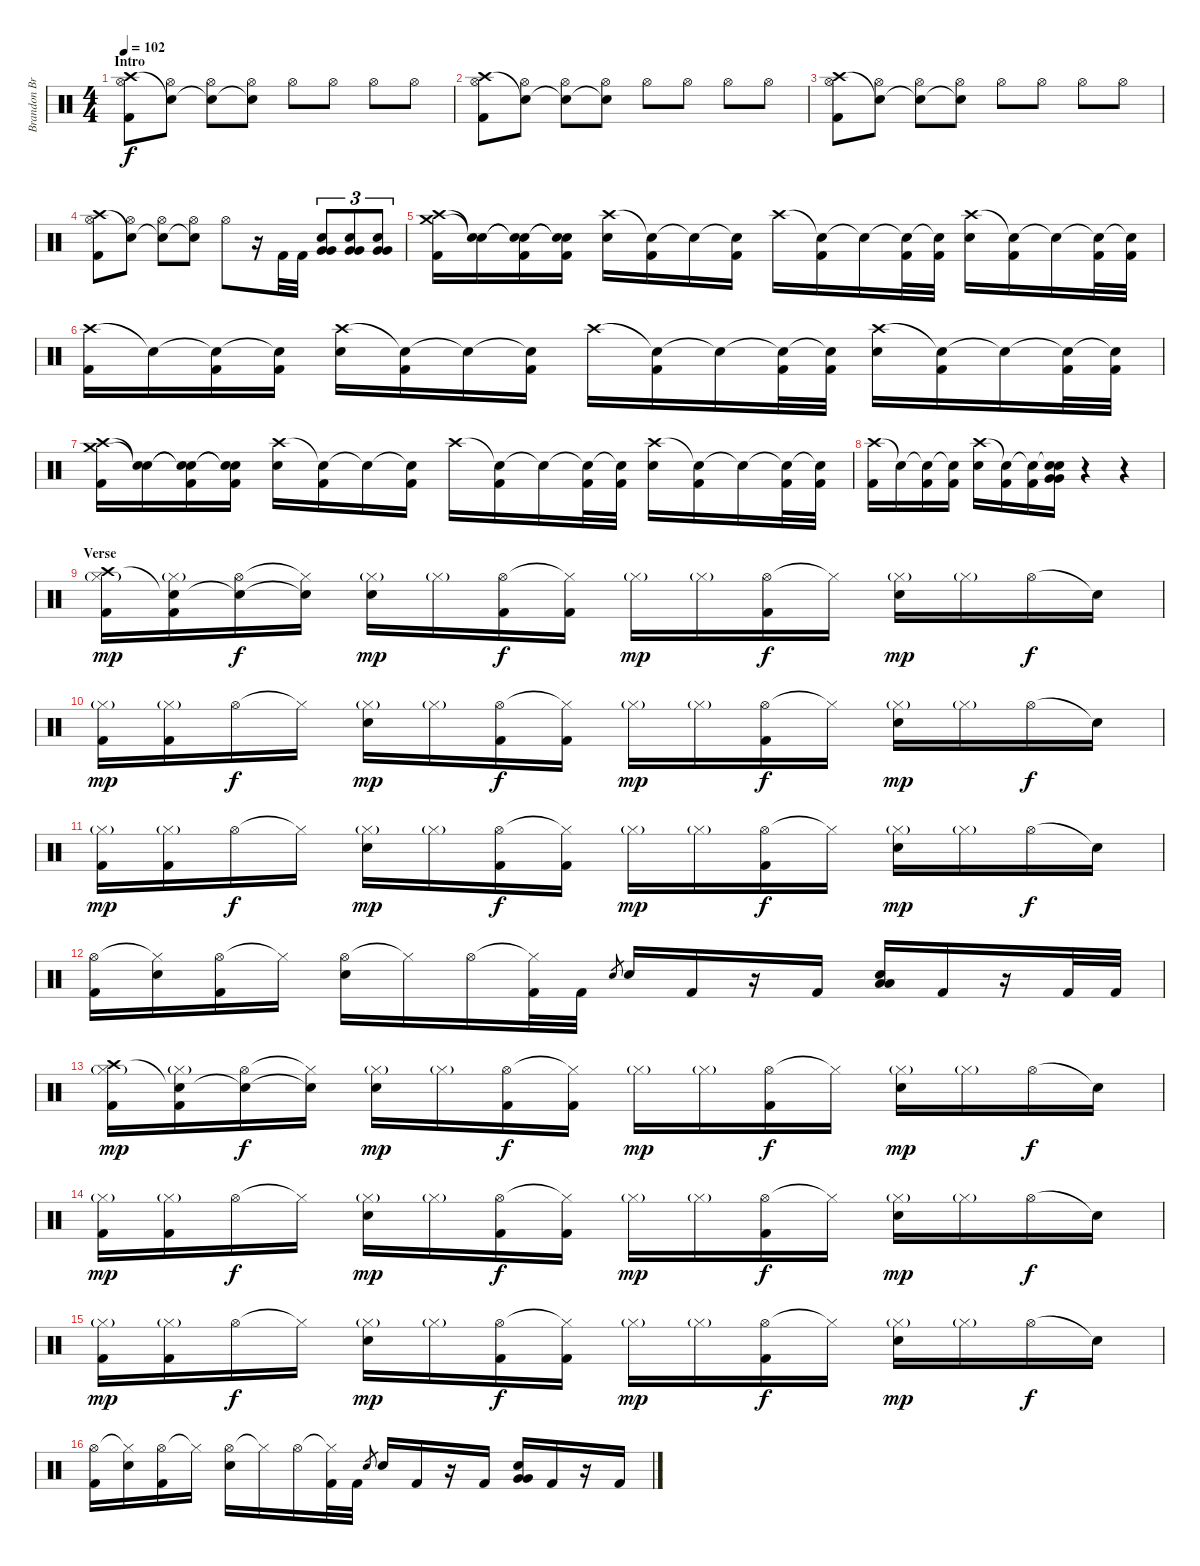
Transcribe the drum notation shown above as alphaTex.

\track ("Brandon Brown (Drums)" "Brandon Br") {instrument percussion}
\staff {score}
\articulation defaults
\ts (4 4)
\section ("" "Intro")
\tempo 102
\clef neutral
\ks c
("Hi-Hat (open)" "Crash high (hit)" "Kick (hit) 2").8{dy f} ("Hi-Hat (open)" "Snare (hit)"{t}).8 ("Hi-Hat (open)" "Snare (hit)"{t}).8 ("Hi-Hat (open)" "Snare (hit)"{t}).8 "Hi-Hat (open)".8 "Hi-Hat (open)".8 "Hi-Hat (open)".8 "Hi-Hat (open)".8 |
("Hi-Hat (open)" "Crash high (hit)" "Kick (hit) 2").8 ("Hi-Hat (open)" "Snare (hit)"{t}).8 ("Hi-Hat (open)" "Snare (hit)"{t}).8 ("Hi-Hat (open)" "Snare (hit)"{t}).8 "Hi-Hat (open)".8 "Hi-Hat (open)".8 "Hi-Hat (open)".8 "Hi-Hat (open)".8 |
("Hi-Hat (open)" "Crash high (hit)" "Kick (hit) 2").8 ("Hi-Hat (open)" "Snare (hit)"{t}).8 ("Hi-Hat (open)" "Snare (hit)"{t}).8 ("Hi-Hat (open)" "Snare (hit)"{t}).8 "Hi-Hat (open)".8 "Hi-Hat (open)".8 "Hi-Hat (open)".8 "Hi-Hat (open)".8 |
("Hi-Hat (open)" "Crash high (hit)" "Kick (hit) 2").8 ("Hi-Hat (open)" "Snare (hit)"{t}).8 ("Hi-Hat (open)" "Snare (hit)"{t}).8 ("Hi-Hat (open)" "Snare (hit)"{t}).8 "Hi-Hat (open)".8 r.16 "Kick (hit) 2".32 "Kick (hit) 2".32 ("Electric Snare (hit)" "Very Low Tom (hit)" "Very Low Tom (hit)").8{tu (3 2)} ("Electric Snare (hit)" "Very Low Tom (hit)" "Very Low Tom (hit)").8{tu (3 2)} ("Electric Snare (hit)" "Very Low Tom (hit)" "Very Low Tom (hit)").8{tu (3 2)} |
("Crash high (hit)" "Crash medium (hit)" "Kick (hit) 2").16 ("Snare (hit)"{t} "Snare (hit)"{t}).16 ("Snare (hit)"{t} "Snare (hit)"{t} "Kick (hit) 2").16 ("Snare (hit)"{t} "Snare (hit)"{t} "Kick (hit) 2").16 ("Crash high (hit)" "Electric Snare (hit)").16 ("Snare (hit)"{t} "Kick (hit) 2").16 "Snare (hit)"{t}.16 ("Snare (hit)"{t} "Kick (hit) 2").16 "Crash high (hit)".16 ("Snare (hit)"{t} "Kick (hit) 2").16 "Snare (hit)"{t}.16 ("Snare (hit)"{t} "Kick (hit) 2").32 ("Snare (hit)"{t} "Kick (hit) 2").32 ("Crash high (hit)" "Electric Snare (hit)").16 ("Snare (hit)"{t} "Kick (hit) 2").16 "Snare (hit)"{t}.16 ("Snare (hit)"{t} "Kick (hit) 2").32 ("Snare (hit)"{t} "Kick (hit) 2").32 |
("Crash high (hit)" "Kick (hit) 2").16 "Snare (hit)"{t}.16 ("Snare (hit)"{t} "Kick (hit) 2").16 ("Snare (hit)"{t} "Kick (hit) 2").16 ("Crash high (hit)" "Electric Snare (hit)").16 ("Snare (hit)"{t} "Kick (hit) 2").16 "Snare (hit)"{t}.16 ("Snare (hit)"{t} "Kick (hit) 2").16 "Crash high (hit)".16 ("Snare (hit)"{t} "Kick (hit) 2").16 "Snare (hit)"{t}.16 ("Snare (hit)"{t} "Kick (hit) 2").32 ("Snare (hit)"{t} "Kick (hit) 2").32 ("Crash high (hit)" "Electric Snare (hit)").16 ("Snare (hit)"{t} "Kick (hit) 2").16 "Snare (hit)"{t}.16 ("Snare (hit)"{t} "Kick (hit) 2").32 ("Snare (hit)"{t} "Kick (hit) 2").32 |
("Crash high (hit)" "Crash medium (hit)" "Kick (hit) 2").16 ("Snare (hit)"{t} "Snare (hit)"{t}).16 ("Snare (hit)"{t} "Snare (hit)"{t} "Kick (hit) 2").16 ("Snare (hit)"{t} "Snare (hit)"{t} "Kick (hit) 2").16 ("Crash high (hit)" "Electric Snare (hit)").16 ("Snare (hit)"{t} "Kick (hit) 2").16 "Snare (hit)"{t}.16 ("Snare (hit)"{t} "Kick (hit) 2").16 "Crash high (hit)".16 ("Snare (hit)"{t} "Kick (hit) 2").16 "Snare (hit)"{t}.16 ("Snare (hit)"{t} "Kick (hit) 2").32 ("Snare (hit)"{t} "Kick (hit) 2").32 ("Crash high (hit)" "Electric Snare (hit)").16 ("Snare (hit)"{t} "Kick (hit) 2").16 "Snare (hit)"{t}.16 ("Snare (hit)"{t} "Kick (hit) 2").32 ("Snare (hit)"{t} "Kick (hit) 2").32 |
("Crash high (hit)" "Kick (hit) 2").16 "Snare (hit)"{t}.16 ("Snare (hit)"{t} "Kick (hit) 2").16 ("Snare (hit)"{t} "Kick (hit) 2").16 ("Crash high (hit)" "Electric Snare (hit)").16 ("Snare (hit)"{t} "Kick (hit) 2").16 ("Snare (hit)"{t} "Kick (hit) 2").16 ("Snare (hit)"{t} "Electric Snare (hit)" "Very Low Tom (hit)" "Very Low Tom (hit)").16 r.4 r.4 |
\section ("" "Verse")
("Hi-Hat (closed)"{g} "Crash high (hit)" "Kick (hit) 2").16{dy mp} ("Hi-Hat (closed)"{g} "Snare (hit)"{t} "Kick (hit) 2").16 ("Hi-Hat (open)" "Snare (hit)"{t}).16{dy f} ("Hi-Hat (closed)"{t} "Snare (hit)"{t}).16 ("Hi-Hat (closed)"{g} "Electric Snare (hit)").16{dy mp} "Hi-Hat (closed)"{g}.16 ("Hi-Hat (open)" "Kick (hit) 2").16{dy f} ("Hi-Hat (closed)"{t} "Kick (hit) 2").16 "Hi-Hat (closed)"{g}.16{dy mp} "Hi-Hat (closed)"{g}.16 ("Hi-Hat (open)" "Kick (hit) 2").16{dy f} "Hi-Hat (closed)"{t}.16 ("Hi-Hat (closed)"{g} "Electric Snare (hit)").16{dy mp} "Hi-Hat (closed)"{g}.16 "Hi-Hat (open)".16{dy f} "Snare (hit)"{t}.16 |
("Hi-Hat (closed)"{g} "Kick (hit) 2").16{dy mp} ("Hi-Hat (closed)"{g} "Kick (hit) 2").16 "Hi-Hat (open)".16{dy f} "Hi-Hat (closed)"{t}.16 ("Hi-Hat (closed)"{g} "Electric Snare (hit)").16{dy mp} "Hi-Hat (closed)"{g}.16 ("Hi-Hat (open)" "Kick (hit) 2").16{dy f} ("Hi-Hat (closed)"{t} "Kick (hit) 2").16 "Hi-Hat (closed)"{g}.16{dy mp} "Hi-Hat (closed)"{g}.16 ("Hi-Hat (open)" "Kick (hit) 2").16{dy f} "Hi-Hat (closed)"{t}.16 ("Hi-Hat (closed)"{g} "Electric Snare (hit)").16{dy mp} "Hi-Hat (closed)"{g}.16 "Hi-Hat (open)".16{dy f} "Snare (hit)"{t}.16 |
("Hi-Hat (closed)"{g} "Kick (hit) 2").16{dy mp} ("Hi-Hat (closed)"{g} "Kick (hit) 2").16 "Hi-Hat (open)".16{dy f} "Hi-Hat (closed)"{t}.16 ("Hi-Hat (closed)"{g} "Electric Snare (hit)").16{dy mp} "Hi-Hat (closed)"{g}.16 ("Hi-Hat (open)" "Kick (hit) 2").16{dy f} ("Hi-Hat (closed)"{t} "Kick (hit) 2").16 "Hi-Hat (closed)"{g}.16{dy mp} "Hi-Hat (closed)"{g}.16 ("Hi-Hat (open)" "Kick (hit) 2").16{dy f} "Hi-Hat (closed)"{t}.16 ("Hi-Hat (closed)"{g} "Electric Snare (hit)").16{dy mp} "Hi-Hat (closed)"{g}.16 "Hi-Hat (open)".16{dy f} "Snare (hit)"{t}.16 |
("Hi-Hat (open)" "Kick (hit) 2").16 ("Hi-Hat (closed)"{t} "Electric Snare (hit)").16 ("Hi-Hat (open)" "Kick (hit) 2").16 "Hi-Hat (closed)"{t}.16 ("Hi-Hat (open)" "Electric Snare (hit)").16 "Hi-Hat (closed)"{t}.16 "Hi-Hat (open)".16 ("Hi-Hat (closed)"{t} "Kick (hit) 2").32 "Kick (hit) 2".32 "Electric Snare (hit)".8{gr} "Electric Snare (hit)".16 "Kick (hit) 2".16 r.16 "Kick (hit) 2".16 ("Low Tom (hit)" "Low Tom (hit)" "Electric Snare (hit)").16 "Kick (hit) 2".16 r.16 "Kick (hit) 2".32 "Kick (hit) 2".32 |
("Hi-Hat (closed)"{g} "Crash high (hit)" "Kick (hit) 2").16{dy mp} ("Hi-Hat (closed)"{g} "Snare (hit)"{t} "Kick (hit) 2").16 ("Hi-Hat (open)" "Snare (hit)"{t}).16{dy f} ("Hi-Hat (closed)"{t} "Snare (hit)"{t}).16 ("Hi-Hat (closed)"{g} "Electric Snare (hit)").16{dy mp} "Hi-Hat (closed)"{g}.16 ("Hi-Hat (open)" "Kick (hit) 2").16{dy f} ("Hi-Hat (closed)"{t} "Kick (hit) 2").16 "Hi-Hat (closed)"{g}.16{dy mp} "Hi-Hat (closed)"{g}.16 ("Hi-Hat (open)" "Kick (hit) 2").16{dy f} "Hi-Hat (closed)"{t}.16 ("Hi-Hat (closed)"{g} "Electric Snare (hit)").16{dy mp} "Hi-Hat (closed)"{g}.16 "Hi-Hat (open)".16{dy f} "Snare (hit)"{t}.16 |
("Hi-Hat (closed)"{g} "Kick (hit) 2").16{dy mp} ("Hi-Hat (closed)"{g} "Kick (hit) 2").16 "Hi-Hat (open)".16{dy f} "Hi-Hat (closed)"{t}.16 ("Hi-Hat (closed)"{g} "Electric Snare (hit)").16{dy mp} "Hi-Hat (closed)"{g}.16 ("Hi-Hat (open)" "Kick (hit) 2").16{dy f} ("Hi-Hat (closed)"{t} "Kick (hit) 2").16 "Hi-Hat (closed)"{g}.16{dy mp} "Hi-Hat (closed)"{g}.16 ("Hi-Hat (open)" "Kick (hit) 2").16{dy f} "Hi-Hat (closed)"{t}.16 ("Hi-Hat (closed)"{g} "Electric Snare (hit)").16{dy mp} "Hi-Hat (closed)"{g}.16 "Hi-Hat (open)".16{dy f} "Snare (hit)"{t}.16 |
("Hi-Hat (closed)"{g} "Kick (hit) 2").16{dy mp} ("Hi-Hat (closed)"{g} "Kick (hit) 2").16 "Hi-Hat (open)".16{dy f} "Hi-Hat (closed)"{t}.16 ("Hi-Hat (closed)"{g} "Electric Snare (hit)").16{dy mp} "Hi-Hat (closed)"{g}.16 ("Hi-Hat (open)" "Kick (hit) 2").16{dy f} ("Hi-Hat (closed)"{t} "Kick (hit) 2").16 "Hi-Hat (closed)"{g}.16{dy mp} "Hi-Hat (closed)"{g}.16 ("Hi-Hat (open)" "Kick (hit) 2").16{dy f} "Hi-Hat (closed)"{t}.16 ("Hi-Hat (closed)"{g} "Electric Snare (hit)").16{dy mp} "Hi-Hat (closed)"{g}.16 "Hi-Hat (open)".16{dy f} "Snare (hit)"{t}.16 |
("Hi-Hat (open)" "Kick (hit) 2").16 ("Hi-Hat (closed)"{t} "Electric Snare (hit)").16 ("Hi-Hat (open)" "Kick (hit) 2").16 "Hi-Hat (closed)"{t}.16 ("Hi-Hat (open)" "Electric Snare (hit)").16 "Hi-Hat (closed)"{t}.16 "Hi-Hat (open)".16 ("Hi-Hat (closed)"{t} "Kick (hit) 2").32 "Kick (hit) 2".32 "Electric Snare (hit)".8{gr} "Electric Snare (hit)".16 "Kick (hit) 2".16 r.16 "Kick (hit) 2".16 ("Electric Snare (hit)" "Very Low Tom (hit)" "Very Low Tom (hit)").16 "Kick (hit) 2".16 r.16 "Kick (hit) 2".16
